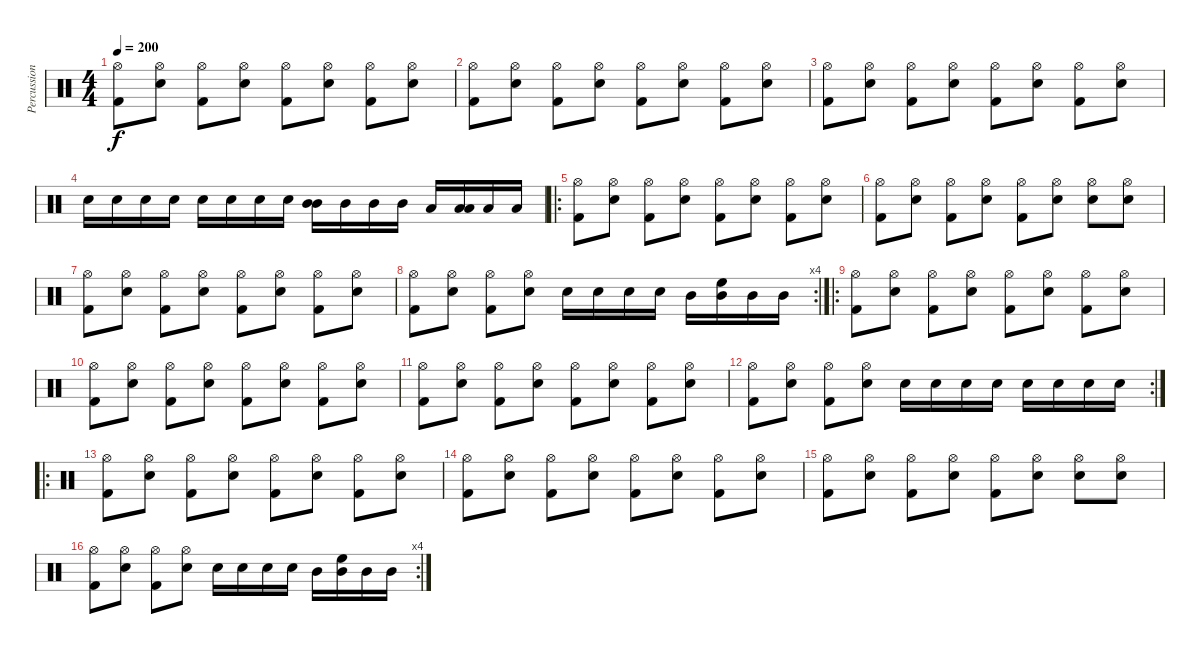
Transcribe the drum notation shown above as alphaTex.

\track ("Percussions" "Percussion") {instrument percussion}
\staff {score}
\articulation defaults
\ts (4 4)
\tempo 200
\clef neutral
\ks c
("Hi-Hat (open)" "Kick (hit) 2").8{dy f} ("Snare (hit) 2" "Hi-Hat (open)").8 ("Hi-Hat (open)" "Kick (hit) 2").8 ("Snare (hit) 2" "Hi-Hat (open)").8 ("Hi-Hat (open)" "Kick (hit) 2").8 ("Snare (hit) 2" "Hi-Hat (open)").8 ("Hi-Hat (open)" "Kick (hit) 2").8 ("Snare (hit) 2" "Hi-Hat (open)").8 |
("Hi-Hat (open)" "Kick (hit) 2").8 ("Snare (hit) 2" "Hi-Hat (open)").8 ("Hi-Hat (open)" "Kick (hit) 2").8 ("Snare (hit) 2" "Hi-Hat (open)").8 ("Hi-Hat (open)" "Kick (hit) 2").8 ("Snare (hit) 2" "Hi-Hat (open)").8 ("Hi-Hat (open)" "Kick (hit) 2").8 ("Snare (hit) 2" "Hi-Hat (open)").8 |
("Hi-Hat (open)" "Kick (hit) 2").8 ("Snare (hit) 2" "Hi-Hat (open)").8 ("Hi-Hat (open)" "Kick (hit) 2").8 ("Snare (hit) 2" "Hi-Hat (open)").8 ("Hi-Hat (open)" "Kick (hit) 2").8 ("Snare (hit) 2" "Hi-Hat (open)").8 ("Hi-Hat (open)" "Kick (hit) 2").8 ("Snare (hit) 2" "Hi-Hat (open)").8 |
"Snare (hit) 2".16 "Snare (hit) 2".16 "Snare (hit) 2".16 "Snare (hit) 2".16 "Snare (hit) 2".16 "Snare (hit) 2".16 "Snare (hit) 2".16 "Snare (hit) 2".16 ("Mid Tom (hit)" "Mid Tom (hit)").16 "Mid Tom (hit)".16 "Mid Tom (hit)".16 "Mid Tom (hit)".16 "Low Floor Tom (hit)".16 ("Low Floor Tom (hit)" "Low Floor Tom (hit)").16 "Low Floor Tom (hit)".16 "Low Floor Tom (hit)".16 |
\ro
("Hi-Hat (open)" "Kick (hit) 2").8 ("Snare (hit) 2" "Hi-Hat (open)").8 ("Hi-Hat (open)" "Kick (hit) 2").8 ("Snare (hit) 2" "Hi-Hat (open)").8 ("Hi-Hat (open)" "Kick (hit) 2").8 ("Snare (hit) 2" "Hi-Hat (open)").8 ("Hi-Hat (open)" "Kick (hit) 2").8 ("Snare (hit) 2" "Hi-Hat (open)").8 |
("Hi-Hat (open)" "Kick (hit) 2").8 ("Snare (hit) 2" "Hi-Hat (open)").8 ("Hi-Hat (open)" "Kick (hit) 2").8 ("Snare (hit) 2" "Hi-Hat (open)").8 ("Hi-Hat (open)" "Kick (hit) 2").8 ("Snare (hit) 2" "Hi-Hat (open)").8 ("Hi-Hat (open)" "Snare (hit) 2").8 ("Snare (hit) 2" "Hi-Hat (open)").8 |
("Hi-Hat (open)" "Kick (hit) 2").8 ("Snare (hit) 2" "Hi-Hat (open)").8 ("Hi-Hat (open)" "Kick (hit) 2").8 ("Snare (hit) 2" "Hi-Hat (open)").8 ("Hi-Hat (open)" "Kick (hit) 2").8 ("Snare (hit) 2" "Hi-Hat (open)").8 ("Hi-Hat (open)" "Kick (hit) 2").8 ("Snare (hit) 2" "Hi-Hat (open)").8 |
\rc 4
("Hi-Hat (open)" "Kick (hit) 2").8 ("Snare (hit) 2" "Hi-Hat (open)").8 ("Hi-Hat (open)" "Kick (hit) 2").8 ("Snare (hit) 2" "Hi-Hat (open)").8 "Snare (hit) 2".16 "Snare (hit) 2".16 "Snare (hit) 2".16 "Snare (hit) 2".16 "Mid Tom (hit)".16 ("Mid Tom (hit)" "High Floor Tom (hit)").16 "Mid Tom (hit)".16 "Mid Tom (hit)".16 |
\ro
("Hi-Hat (open)" "Kick (hit) 2").8 ("Snare (hit) 2" "Hi-Hat (open)").8 ("Hi-Hat (open)" "Kick (hit) 2").8 ("Snare (hit) 2" "Hi-Hat (open)").8 ("Hi-Hat (open)" "Kick (hit) 2").8 ("Snare (hit) 2" "Hi-Hat (open)").8 ("Hi-Hat (open)" "Kick (hit) 2").8 ("Snare (hit) 2" "Hi-Hat (open)").8 |
("Hi-Hat (open)" "Kick (hit) 2").8 ("Snare (hit) 2" "Hi-Hat (open)").8 ("Hi-Hat (open)" "Kick (hit) 2").8 ("Snare (hit) 2" "Hi-Hat (open)").8 ("Hi-Hat (open)" "Kick (hit) 2").8 ("Snare (hit) 2" "Hi-Hat (open)").8 ("Hi-Hat (open)" "Kick (hit) 2").8 ("Snare (hit) 2" "Hi-Hat (open)").8 |
("Hi-Hat (open)" "Kick (hit) 2").8 ("Snare (hit) 2" "Hi-Hat (open)").8 ("Hi-Hat (open)" "Kick (hit) 2").8 ("Snare (hit) 2" "Hi-Hat (open)").8 ("Hi-Hat (open)" "Kick (hit) 2").8 ("Snare (hit) 2" "Hi-Hat (open)").8 ("Hi-Hat (open)" "Kick (hit) 2").8 ("Snare (hit) 2" "Hi-Hat (open)").8 |
\rc 2
("Hi-Hat (open)" "Kick (hit) 2").8 ("Snare (hit) 2" "Hi-Hat (open)").8 ("Hi-Hat (open)" "Kick (hit) 2").8 ("Snare (hit) 2" "Hi-Hat (open)").8 "Snare (hit) 2".16 "Snare (hit) 2".16 "Snare (hit) 2".16 "Snare (hit) 2".16 "Snare (hit) 2".16 "Snare (hit) 2".16 "Snare (hit) 2".16 "Snare (hit) 2".16 |
\ro
("Hi-Hat (open)" "Kick (hit) 2").8 ("Snare (hit) 2" "Hi-Hat (open)").8 ("Hi-Hat (open)" "Kick (hit) 2").8 ("Snare (hit) 2" "Hi-Hat (open)").8 ("Hi-Hat (open)" "Kick (hit) 2").8 ("Snare (hit) 2" "Hi-Hat (open)").8 ("Hi-Hat (open)" "Kick (hit) 2").8 ("Snare (hit) 2" "Hi-Hat (open)").8 |
("Hi-Hat (open)" "Kick (hit) 2").8 ("Snare (hit) 2" "Hi-Hat (open)").8 ("Hi-Hat (open)" "Kick (hit) 2").8 ("Snare (hit) 2" "Hi-Hat (open)").8 ("Hi-Hat (open)" "Kick (hit) 2").8 ("Snare (hit) 2" "Hi-Hat (open)").8 ("Hi-Hat (open)" "Kick (hit) 2").8 ("Snare (hit) 2" "Hi-Hat (open)").8 |
("Hi-Hat (open)" "Kick (hit) 2").8 ("Snare (hit) 2" "Hi-Hat (open)").8 ("Hi-Hat (open)" "Kick (hit) 2").8 ("Snare (hit) 2" "Hi-Hat (open)").8 ("Hi-Hat (open)" "Kick (hit) 2").8 ("Snare (hit) 2" "Hi-Hat (open)").8 ("Hi-Hat (open)" "Snare (hit) 2").8 ("Snare (hit) 2" "Hi-Hat (open)").8 |
\rc 4
("Hi-Hat (open)" "Kick (hit) 2").8 ("Snare (hit) 2" "Hi-Hat (open)").8 ("Hi-Hat (open)" "Kick (hit) 2").8 ("Snare (hit) 2" "Hi-Hat (open)").8 "Snare (hit) 2".16 "Snare (hit) 2".16 "Snare (hit) 2".16 "Snare (hit) 2".16 "Mid Tom (hit)".16 ("Mid Tom (hit)" "High Floor Tom (hit)").16 "Mid Tom (hit)".16 "Mid Tom (hit)".16
